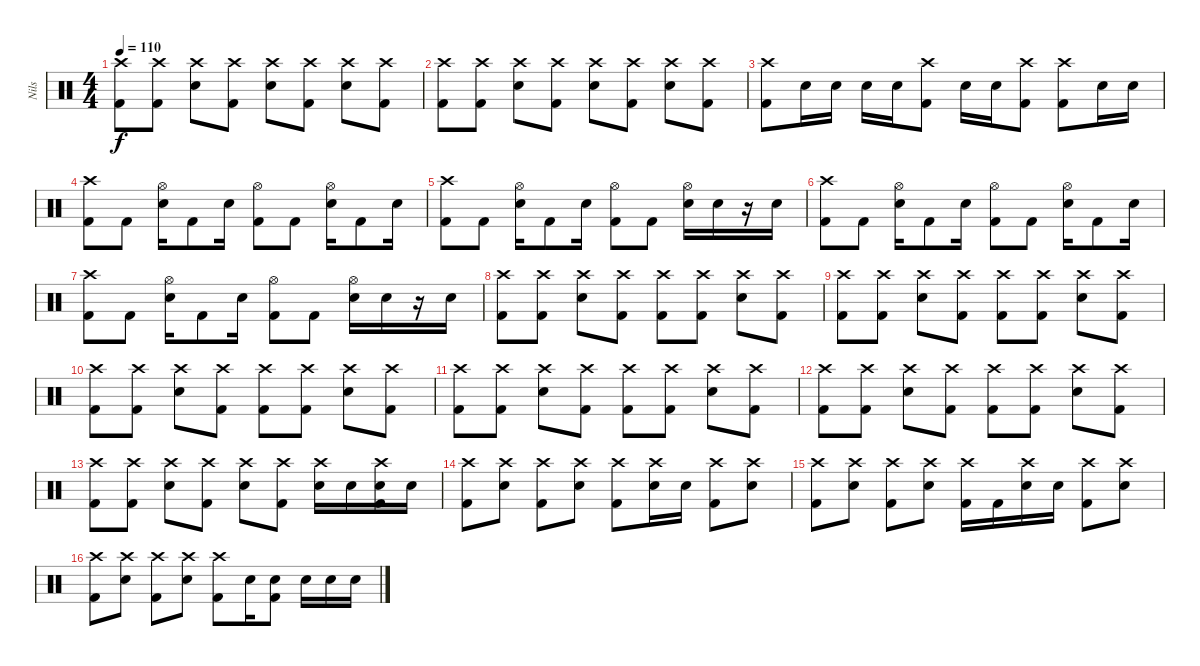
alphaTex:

\track ("Nils" "Nils") {instrument percussion}
\staff {score}
\articulation defaults
\ts (4 4)
\tempo 110
\clef neutral
\ks c
("Crash high (hit)" "Kick (hit) 2").8{dy f} ("Crash high (hit)" "Kick (hit) 2").8 ("Crash high (hit)" "Snare (hit) 2").8 ("Crash high (hit)" "Kick (hit) 2").8 ("Crash high (hit)" "Snare (hit) 2").8 ("Crash high (hit)" "Kick (hit) 2").8 ("Crash high (hit)" "Snare (hit) 2").8 ("Crash high (hit)" "Kick (hit) 2").8 |
("Crash high (hit)" "Kick (hit) 2").8 ("Crash high (hit)" "Kick (hit) 2").8 ("Crash high (hit)" "Snare (hit) 2").8 ("Crash high (hit)" "Kick (hit) 2").8 ("Crash high (hit)" "Snare (hit) 2").8 ("Crash high (hit)" "Kick (hit) 2").8 ("Crash high (hit)" "Snare (hit) 2").8 ("Crash high (hit)" "Kick (hit) 2").8 |
("Crash high (hit)" "Kick (hit) 2").8 "Snare (hit) 2".16 "Snare (hit) 2".16 "Snare (hit) 2".16 "Snare (hit) 2".16 ("Crash high (hit)" "Kick (hit) 2").8 "Snare (hit) 2".16 "Snare (hit) 2".16 ("Crash high (hit)" "Kick (hit) 2").8 ("Crash high (hit)" "Kick (hit) 2").8 "Snare (hit) 2".16 "Snare (hit) 2".16 |
("Crash high (hit)" "Kick (hit) 2").8 "Kick (hit) 2".8 ("Hi-Hat (open)" "Snare (hit) 2").16 "Kick (hit) 2".8 "Snare (hit) 2".16 ("Hi-Hat (open)" "Kick (hit) 2").8 "Kick (hit) 2".8 ("Hi-Hat (open)" "Snare (hit) 2").16 "Kick (hit) 2".8 "Snare (hit) 2".16 |
("Crash high (hit)" "Kick (hit) 2").8 "Kick (hit) 2".8 ("Hi-Hat (open)" "Snare (hit) 2").16 "Kick (hit) 2".8 "Snare (hit) 2".16 ("Hi-Hat (open)" "Kick (hit) 2").8 "Kick (hit) 2".8 ("Hi-Hat (open)" "Snare (hit) 2").16 "Snare (hit) 2".16 r.16 "Snare (hit) 2".16 |
("Crash high (hit)" "Kick (hit) 2").8 "Kick (hit) 2".8 ("Hi-Hat (open)" "Snare (hit) 2").16 "Kick (hit) 2".8 "Snare (hit) 2".16 ("Hi-Hat (open)" "Kick (hit) 2").8 "Kick (hit) 2".8 ("Hi-Hat (open)" "Snare (hit) 2").16 "Kick (hit) 2".8 "Snare (hit) 2".16 |
("Crash high (hit)" "Kick (hit) 2").8 "Kick (hit) 2".8 ("Hi-Hat (open)" "Snare (hit) 2").16 "Kick (hit) 2".8 "Snare (hit) 2".16 ("Hi-Hat (open)" "Kick (hit) 2").8 "Kick (hit) 2".8 ("Hi-Hat (open)" "Snare (hit) 2").16 "Snare (hit) 2".16 r.16 "Snare (hit) 2".16 |
("Crash high (hit)" "Kick (hit) 2").8 ("Crash high (hit)" "Kick (hit) 2").8 ("Crash high (hit)" "Snare (hit) 2").8 ("Crash high (hit)" "Kick (hit) 2").8 ("Crash high (hit)" "Kick (hit) 2").8 ("Crash high (hit)" "Kick (hit) 2").8 ("Crash high (hit)" "Snare (hit) 2").8 ("Crash high (hit)" "Kick (hit) 2").8 |
("Crash high (hit)" "Kick (hit) 2").8 ("Crash high (hit)" "Kick (hit) 2").8 ("Crash high (hit)" "Snare (hit) 2").8 ("Crash high (hit)" "Kick (hit) 2").8 ("Crash high (hit)" "Kick (hit) 2").8 ("Crash high (hit)" "Kick (hit) 2").8 ("Crash high (hit)" "Snare (hit) 2").8 ("Crash high (hit)" "Kick (hit) 2").8 |
("Crash high (hit)" "Kick (hit) 2").8 ("Crash high (hit)" "Kick (hit) 2").8 ("Crash high (hit)" "Snare (hit) 2").8 ("Crash high (hit)" "Kick (hit) 2").8 ("Crash high (hit)" "Kick (hit) 2").8 ("Crash high (hit)" "Kick (hit) 2").8 ("Crash high (hit)" "Snare (hit) 2").8 ("Crash high (hit)" "Kick (hit) 2").8 |
("Crash high (hit)" "Kick (hit) 2").8 ("Crash high (hit)" "Kick (hit) 2").8 ("Crash high (hit)" "Snare (hit) 2").8 ("Crash high (hit)" "Kick (hit) 2").8 ("Crash high (hit)" "Kick (hit) 2").8 ("Crash high (hit)" "Kick (hit) 2").8 ("Crash high (hit)" "Snare (hit) 2").8 ("Crash high (hit)" "Kick (hit) 2").8 |
("Crash high (hit)" "Kick (hit) 2").8 ("Crash high (hit)" "Kick (hit) 2").8 ("Crash high (hit)" "Snare (hit) 2").8 ("Crash high (hit)" "Kick (hit) 2").8 ("Crash high (hit)" "Kick (hit) 2").8 ("Crash high (hit)" "Kick (hit) 2").8 ("Crash high (hit)" "Snare (hit) 2").8 ("Crash high (hit)" "Kick (hit) 2").8 |
("Crash high (hit)" "Kick (hit) 2").8 ("Crash high (hit)" "Kick (hit) 2").8 ("Crash high (hit)" "Snare (hit) 2").8 ("Crash high (hit)" "Kick (hit) 2").8 ("Crash high (hit)" "Snare (hit) 2").8 ("Crash high (hit)" "Kick (hit) 2").8 ("Crash high (hit)" "Snare (hit) 2").16 "Snare (hit) 2".16 ("Crash high (hit)" "Snare (hit) 2" "Kick (hit) 2").16 "Snare (hit) 2".16 |
("Crash high (hit)" "Kick (hit) 2").8 ("Crash high (hit)" "Snare (hit) 2").8 ("Crash high (hit)" "Kick (hit) 2").8 ("Crash high (hit)" "Snare (hit) 2").8 ("Crash high (hit)" "Kick (hit) 2").8 ("Crash high (hit)" "Snare (hit) 2").16 "Snare (hit) 2".16 ("Crash high (hit)" "Kick (hit) 2").8 ("Crash high (hit)" "Snare (hit) 2").8 |
("Crash high (hit)" "Kick (hit) 2").8 ("Crash high (hit)" "Snare (hit) 2").8 ("Crash high (hit)" "Kick (hit) 2").8 ("Crash high (hit)" "Snare (hit) 2").8 ("Crash high (hit)" "Kick (hit) 2").16 "Kick (hit) 2".16 ("Crash high (hit)" "Snare (hit) 2").16 "Snare (hit) 2".16 ("Crash high (hit)" "Kick (hit) 2").8 ("Crash high (hit)" "Snare (hit) 2").8 |
("Crash high (hit)" "Kick (hit) 2").8 ("Crash high (hit)" "Snare (hit) 2").8 ("Crash high (hit)" "Kick (hit) 2").8 ("Crash high (hit)" "Snare (hit) 2").8 ("Crash high (hit)" "Kick (hit) 2").8 "Snare (hit) 2".16 ("Snare (hit) 2" "Kick (hit) 2").8 "Snare (hit) 2".16 "Snare (hit) 2".16 "Snare (hit) 2".16
